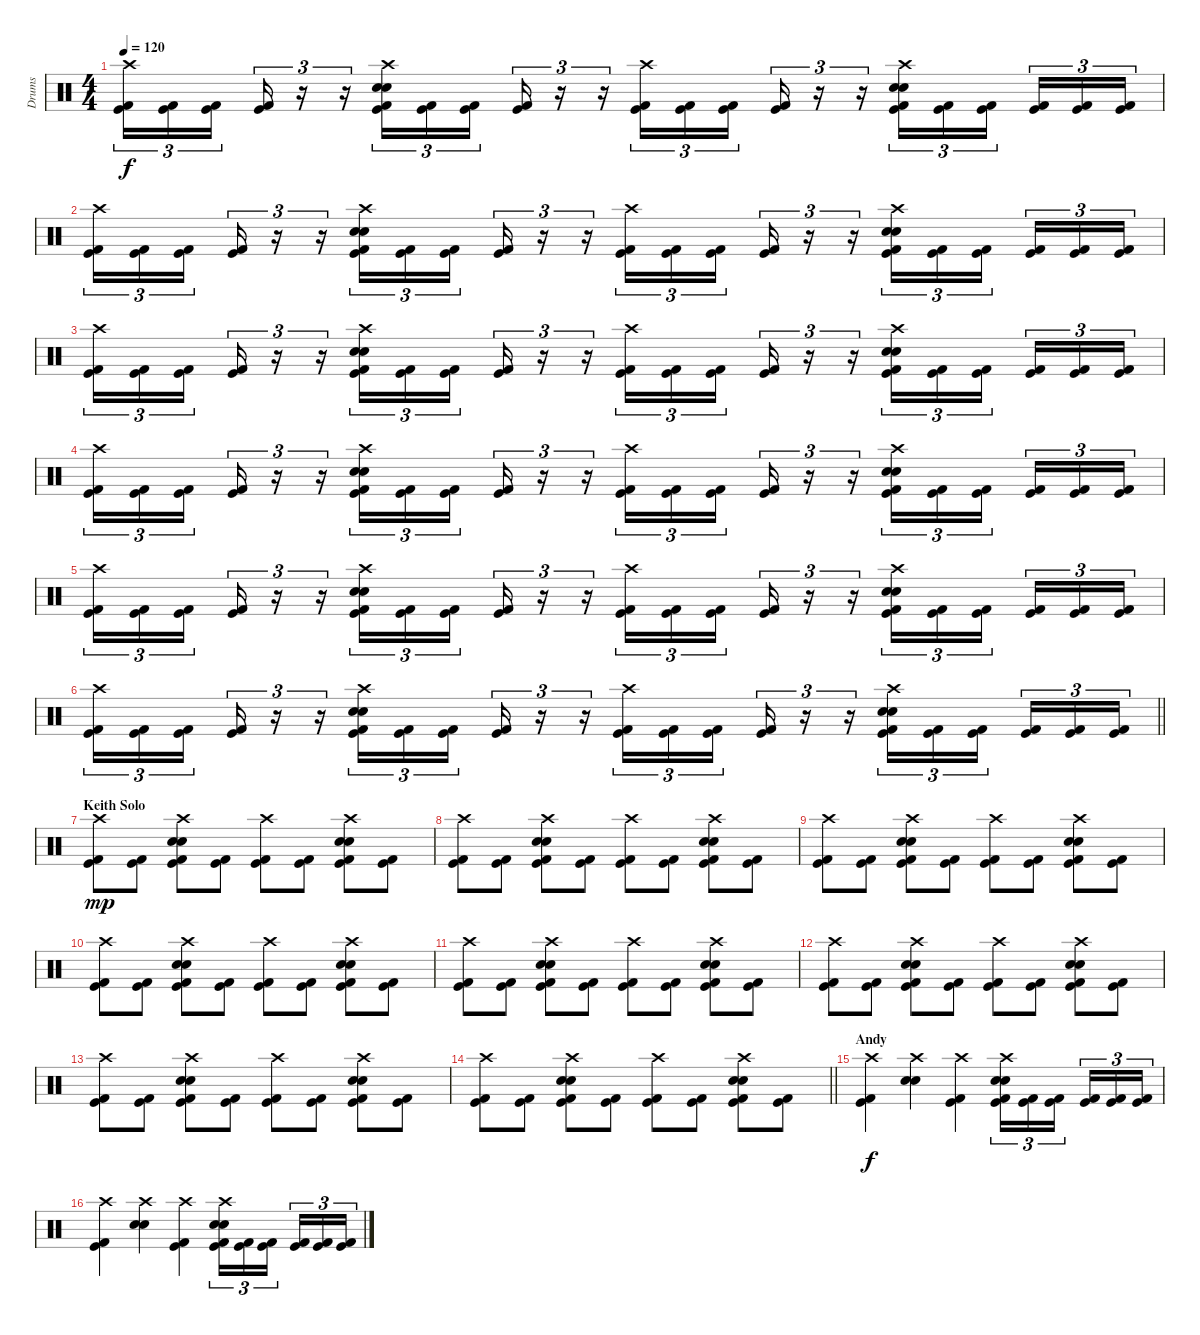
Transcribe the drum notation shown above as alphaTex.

\track ("Drums" "Drums") {instrument percussion}
\staff {score}
\articulation defaults
\ts (4 4)
\tempo 120
\clef neutral
\ks c
("Crash high (hit)" "Kick (hit) 2" "Kick (hit)").16{tu (3 2) dy f} ("Kick (hit) 2" "Kick (hit)").16{tu (3 2)} ("Kick (hit) 2" "Kick (hit)").16{tu (3 2) beam splitsecondary} ("Kick (hit) 2" "Kick (hit)").16{tu (3 2)} r.16{tu (3 2)} r.16{tu (3 2)} ("Crash high (hit)" "Electric Snare (hit)" "Electric Snare (hit)" "Kick (hit) 2" "Kick (hit)").16{tu (3 2)} ("Kick (hit) 2" "Kick (hit)").16{tu (3 2)} ("Kick (hit) 2" "Kick (hit)").16{tu (3 2) beam splitsecondary} ("Kick (hit) 2" "Kick (hit)").16{tu (3 2)} r.16{tu (3 2)} r.16{tu (3 2)} ("Crash high (hit)" "Kick (hit) 2" "Kick (hit)").16{tu (3 2)} ("Kick (hit) 2" "Kick (hit)").16{tu (3 2)} ("Kick (hit) 2" "Kick (hit)").16{tu (3 2) beam splitsecondary} ("Kick (hit) 2" "Kick (hit)").16{tu (3 2)} r.16{tu (3 2)} r.16{tu (3 2)} ("Crash high (hit)" "Electric Snare (hit)" "Electric Snare (hit)" "Kick (hit) 2" "Kick (hit)").16{tu (3 2)} ("Kick (hit) 2" "Kick (hit)").16{tu (3 2)} ("Kick (hit) 2" "Kick (hit)").16{tu (3 2) beam splitsecondary} ("Kick (hit) 2" "Kick (hit)").16{tu (3 2)} ("Kick (hit) 2" "Kick (hit)").16{tu (3 2)} ("Kick (hit) 2" "Kick (hit)").16{tu (3 2)} |
("Crash high (hit)" "Kick (hit) 2" "Kick (hit)").16{tu (3 2)} ("Kick (hit) 2" "Kick (hit)").16{tu (3 2)} ("Kick (hit) 2" "Kick (hit)").16{tu (3 2) beam splitsecondary} ("Kick (hit) 2" "Kick (hit)").16{tu (3 2)} r.16{tu (3 2)} r.16{tu (3 2)} ("Crash high (hit)" "Electric Snare (hit)" "Electric Snare (hit)" "Kick (hit) 2" "Kick (hit)").16{tu (3 2)} ("Kick (hit) 2" "Kick (hit)").16{tu (3 2)} ("Kick (hit) 2" "Kick (hit)").16{tu (3 2) beam splitsecondary} ("Kick (hit) 2" "Kick (hit)").16{tu (3 2)} r.16{tu (3 2)} r.16{tu (3 2)} ("Crash high (hit)" "Kick (hit) 2" "Kick (hit)").16{tu (3 2)} ("Kick (hit) 2" "Kick (hit)").16{tu (3 2)} ("Kick (hit) 2" "Kick (hit)").16{tu (3 2) beam splitsecondary} ("Kick (hit) 2" "Kick (hit)").16{tu (3 2)} r.16{tu (3 2)} r.16{tu (3 2)} ("Crash high (hit)" "Electric Snare (hit)" "Electric Snare (hit)" "Kick (hit) 2" "Kick (hit)").16{tu (3 2)} ("Kick (hit) 2" "Kick (hit)").16{tu (3 2)} ("Kick (hit) 2" "Kick (hit)").16{tu (3 2) beam splitsecondary} ("Kick (hit) 2" "Kick (hit)").16{tu (3 2)} ("Kick (hit) 2" "Kick (hit)").16{tu (3 2)} ("Kick (hit) 2" "Kick (hit)").16{tu (3 2)} |
("Crash high (hit)" "Kick (hit) 2" "Kick (hit)").16{tu (3 2)} ("Kick (hit) 2" "Kick (hit)").16{tu (3 2)} ("Kick (hit) 2" "Kick (hit)").16{tu (3 2) beam splitsecondary} ("Kick (hit) 2" "Kick (hit)").16{tu (3 2)} r.16{tu (3 2)} r.16{tu (3 2)} ("Crash high (hit)" "Electric Snare (hit)" "Electric Snare (hit)" "Kick (hit) 2" "Kick (hit)").16{tu (3 2)} ("Kick (hit) 2" "Kick (hit)").16{tu (3 2)} ("Kick (hit) 2" "Kick (hit)").16{tu (3 2) beam splitsecondary} ("Kick (hit) 2" "Kick (hit)").16{tu (3 2)} r.16{tu (3 2)} r.16{tu (3 2)} ("Crash high (hit)" "Kick (hit) 2" "Kick (hit)").16{tu (3 2)} ("Kick (hit) 2" "Kick (hit)").16{tu (3 2)} ("Kick (hit) 2" "Kick (hit)").16{tu (3 2) beam splitsecondary} ("Kick (hit) 2" "Kick (hit)").16{tu (3 2)} r.16{tu (3 2)} r.16{tu (3 2)} ("Crash high (hit)" "Electric Snare (hit)" "Electric Snare (hit)" "Kick (hit) 2" "Kick (hit)").16{tu (3 2)} ("Kick (hit) 2" "Kick (hit)").16{tu (3 2)} ("Kick (hit) 2" "Kick (hit)").16{tu (3 2) beam splitsecondary} ("Kick (hit) 2" "Kick (hit)").16{tu (3 2)} ("Kick (hit) 2" "Kick (hit)").16{tu (3 2)} ("Kick (hit) 2" "Kick (hit)").16{tu (3 2)} |
("Crash high (hit)" "Kick (hit) 2" "Kick (hit)").16{tu (3 2)} ("Kick (hit) 2" "Kick (hit)").16{tu (3 2)} ("Kick (hit) 2" "Kick (hit)").16{tu (3 2) beam splitsecondary} ("Kick (hit) 2" "Kick (hit)").16{tu (3 2)} r.16{tu (3 2)} r.16{tu (3 2)} ("Crash high (hit)" "Electric Snare (hit)" "Electric Snare (hit)" "Kick (hit) 2" "Kick (hit)").16{tu (3 2)} ("Kick (hit) 2" "Kick (hit)").16{tu (3 2)} ("Kick (hit) 2" "Kick (hit)").16{tu (3 2) beam splitsecondary} ("Kick (hit) 2" "Kick (hit)").16{tu (3 2)} r.16{tu (3 2)} r.16{tu (3 2)} ("Crash high (hit)" "Kick (hit) 2" "Kick (hit)").16{tu (3 2)} ("Kick (hit) 2" "Kick (hit)").16{tu (3 2)} ("Kick (hit) 2" "Kick (hit)").16{tu (3 2) beam splitsecondary} ("Kick (hit) 2" "Kick (hit)").16{tu (3 2)} r.16{tu (3 2)} r.16{tu (3 2)} ("Crash high (hit)" "Electric Snare (hit)" "Electric Snare (hit)" "Kick (hit) 2" "Kick (hit)").16{tu (3 2)} ("Kick (hit) 2" "Kick (hit)").16{tu (3 2)} ("Kick (hit) 2" "Kick (hit)").16{tu (3 2) beam splitsecondary} ("Kick (hit) 2" "Kick (hit)").16{tu (3 2)} ("Kick (hit) 2" "Kick (hit)").16{tu (3 2)} ("Kick (hit) 2" "Kick (hit)").16{tu (3 2)} |
("Crash high (hit)" "Kick (hit) 2" "Kick (hit)").16{tu (3 2)} ("Kick (hit) 2" "Kick (hit)").16{tu (3 2)} ("Kick (hit) 2" "Kick (hit)").16{tu (3 2) beam splitsecondary} ("Kick (hit) 2" "Kick (hit)").16{tu (3 2)} r.16{tu (3 2)} r.16{tu (3 2)} ("Crash high (hit)" "Electric Snare (hit)" "Electric Snare (hit)" "Kick (hit) 2" "Kick (hit)").16{tu (3 2)} ("Kick (hit) 2" "Kick (hit)").16{tu (3 2)} ("Kick (hit) 2" "Kick (hit)").16{tu (3 2) beam splitsecondary} ("Kick (hit) 2" "Kick (hit)").16{tu (3 2)} r.16{tu (3 2)} r.16{tu (3 2)} ("Crash high (hit)" "Kick (hit) 2" "Kick (hit)").16{tu (3 2)} ("Kick (hit) 2" "Kick (hit)").16{tu (3 2)} ("Kick (hit) 2" "Kick (hit)").16{tu (3 2) beam splitsecondary} ("Kick (hit) 2" "Kick (hit)").16{tu (3 2)} r.16{tu (3 2)} r.16{tu (3 2)} ("Crash high (hit)" "Electric Snare (hit)" "Electric Snare (hit)" "Kick (hit) 2" "Kick (hit)").16{tu (3 2)} ("Kick (hit) 2" "Kick (hit)").16{tu (3 2)} ("Kick (hit) 2" "Kick (hit)").16{tu (3 2) beam splitsecondary} ("Kick (hit) 2" "Kick (hit)").16{tu (3 2)} ("Kick (hit) 2" "Kick (hit)").16{tu (3 2)} ("Kick (hit) 2" "Kick (hit)").16{tu (3 2)} |
\barLineRight lightlight
("Crash high (hit)" "Kick (hit) 2" "Kick (hit)").16{tu (3 2)} ("Kick (hit) 2" "Kick (hit)").16{tu (3 2)} ("Kick (hit) 2" "Kick (hit)").16{tu (3 2) beam splitsecondary} ("Kick (hit) 2" "Kick (hit)").16{tu (3 2)} r.16{tu (3 2)} r.16{tu (3 2)} ("Crash high (hit)" "Electric Snare (hit)" "Electric Snare (hit)" "Kick (hit) 2" "Kick (hit)").16{tu (3 2)} ("Kick (hit) 2" "Kick (hit)").16{tu (3 2)} ("Kick (hit) 2" "Kick (hit)").16{tu (3 2) beam splitsecondary} ("Kick (hit) 2" "Kick (hit)").16{tu (3 2)} r.16{tu (3 2)} r.16{tu (3 2)} ("Crash high (hit)" "Kick (hit) 2" "Kick (hit)").16{tu (3 2)} ("Kick (hit) 2" "Kick (hit)").16{tu (3 2)} ("Kick (hit) 2" "Kick (hit)").16{tu (3 2) beam splitsecondary} ("Kick (hit) 2" "Kick (hit)").16{tu (3 2)} r.16{tu (3 2)} r.16{tu (3 2)} ("Crash high (hit)" "Electric Snare (hit)" "Electric Snare (hit)" "Kick (hit) 2" "Kick (hit)").16{tu (3 2)} ("Kick (hit) 2" "Kick (hit)").16{tu (3 2)} ("Kick (hit) 2" "Kick (hit)").16{tu (3 2) beam splitsecondary} ("Kick (hit) 2" "Kick (hit)").16{tu (3 2)} ("Kick (hit) 2" "Kick (hit)").16{tu (3 2)} ("Kick (hit) 2" "Kick (hit)").16{tu (3 2)} |
\section ("" "Keith Solo")
("Crash high (hit)" "Kick (hit) 2" "Kick (hit)").8{dy mp} ("Kick (hit) 2" "Kick (hit)").8 ("Crash high (hit)" "Electric Snare (hit)" "Electric Snare (hit)" "Kick (hit) 2" "Kick (hit)").8 ("Kick (hit) 2" "Kick (hit)").8 ("Crash high (hit)" "Kick (hit) 2" "Kick (hit)").8 ("Kick (hit) 2" "Kick (hit)").8 ("Crash high (hit)" "Electric Snare (hit)" "Electric Snare (hit)" "Kick (hit) 2" "Kick (hit)").8 ("Kick (hit) 2" "Kick (hit)").8 |
("Crash high (hit)" "Kick (hit) 2" "Kick (hit)").8 ("Kick (hit) 2" "Kick (hit)").8 ("Crash high (hit)" "Electric Snare (hit)" "Electric Snare (hit)" "Kick (hit) 2" "Kick (hit)").8 ("Kick (hit) 2" "Kick (hit)").8 ("Crash high (hit)" "Kick (hit) 2" "Kick (hit)").8 ("Kick (hit) 2" "Kick (hit)").8 ("Crash high (hit)" "Electric Snare (hit)" "Electric Snare (hit)" "Kick (hit) 2" "Kick (hit)").8 ("Kick (hit) 2" "Kick (hit)").8 |
("Crash high (hit)" "Kick (hit) 2" "Kick (hit)").8 ("Kick (hit) 2" "Kick (hit)").8 ("Crash high (hit)" "Electric Snare (hit)" "Electric Snare (hit)" "Kick (hit) 2" "Kick (hit)").8 ("Kick (hit) 2" "Kick (hit)").8 ("Crash high (hit)" "Kick (hit) 2" "Kick (hit)").8 ("Kick (hit) 2" "Kick (hit)").8 ("Crash high (hit)" "Electric Snare (hit)" "Electric Snare (hit)" "Kick (hit) 2" "Kick (hit)").8 ("Kick (hit) 2" "Kick (hit)").8 |
("Crash high (hit)" "Kick (hit) 2" "Kick (hit)").8 ("Kick (hit) 2" "Kick (hit)").8 ("Crash high (hit)" "Electric Snare (hit)" "Electric Snare (hit)" "Kick (hit) 2" "Kick (hit)").8 ("Kick (hit) 2" "Kick (hit)").8 ("Crash high (hit)" "Kick (hit) 2" "Kick (hit)").8 ("Kick (hit) 2" "Kick (hit)").8 ("Crash high (hit)" "Electric Snare (hit)" "Electric Snare (hit)" "Kick (hit) 2" "Kick (hit)").8 ("Kick (hit) 2" "Kick (hit)").8 |
("Crash high (hit)" "Kick (hit) 2" "Kick (hit)").8 ("Kick (hit) 2" "Kick (hit)").8 ("Crash high (hit)" "Electric Snare (hit)" "Electric Snare (hit)" "Kick (hit) 2" "Kick (hit)").8 ("Kick (hit) 2" "Kick (hit)").8 ("Crash high (hit)" "Kick (hit) 2" "Kick (hit)").8 ("Kick (hit) 2" "Kick (hit)").8 ("Crash high (hit)" "Electric Snare (hit)" "Electric Snare (hit)" "Kick (hit) 2" "Kick (hit)").8 ("Kick (hit) 2" "Kick (hit)").8 |
("Crash high (hit)" "Kick (hit) 2" "Kick (hit)").8 ("Kick (hit) 2" "Kick (hit)").8 ("Crash high (hit)" "Electric Snare (hit)" "Electric Snare (hit)" "Kick (hit) 2" "Kick (hit)").8 ("Kick (hit) 2" "Kick (hit)").8 ("Crash high (hit)" "Kick (hit) 2" "Kick (hit)").8 ("Kick (hit) 2" "Kick (hit)").8 ("Crash high (hit)" "Electric Snare (hit)" "Electric Snare (hit)" "Kick (hit) 2" "Kick (hit)").8 ("Kick (hit) 2" "Kick (hit)").8 |
("Crash high (hit)" "Kick (hit) 2" "Kick (hit)").8 ("Kick (hit) 2" "Kick (hit)").8 ("Crash high (hit)" "Electric Snare (hit)" "Electric Snare (hit)" "Kick (hit) 2" "Kick (hit)").8 ("Kick (hit) 2" "Kick (hit)").8 ("Crash high (hit)" "Kick (hit) 2" "Kick (hit)").8 ("Kick (hit) 2" "Kick (hit)").8 ("Crash high (hit)" "Electric Snare (hit)" "Electric Snare (hit)" "Kick (hit) 2" "Kick (hit)").8 ("Kick (hit) 2" "Kick (hit)").8 |
\barLineRight lightlight
("Crash high (hit)" "Kick (hit) 2" "Kick (hit)").8 ("Kick (hit) 2" "Kick (hit)").8 ("Crash high (hit)" "Electric Snare (hit)" "Electric Snare (hit)" "Kick (hit) 2" "Kick (hit)").8 ("Kick (hit) 2" "Kick (hit)").8 ("Crash high (hit)" "Kick (hit) 2" "Kick (hit)").8 ("Kick (hit) 2" "Kick (hit)").8 ("Crash high (hit)" "Electric Snare (hit)" "Electric Snare (hit)" "Kick (hit) 2" "Kick (hit)").8 ("Kick (hit) 2" "Kick (hit)").8 |
\section ("" "Andy")
("Crash high (hit)" "Kick (hit) 2" "Kick (hit)").4{dy f} ("Crash high (hit)" "Electric Snare (hit)" "Electric Snare (hit)").4 ("Crash high (hit)" "Kick (hit) 2" "Kick (hit)").4 ("Crash high (hit)" "Electric Snare (hit)" "Electric Snare (hit)" "Kick (hit)" "Kick (hit) 2").16{tu (3 2)} ("Kick (hit)" "Kick (hit) 2").16{tu (3 2)} ("Kick (hit)" "Kick (hit) 2").16{tu (3 2) beam splitsecondary} ("Kick (hit)" "Kick (hit) 2").16{tu (3 2)} ("Kick (hit)" "Kick (hit) 2").16{tu (3 2)} ("Kick (hit)" "Kick (hit) 2").16{tu (3 2)} |
("Crash high (hit)" "Kick (hit) 2" "Kick (hit)").4 ("Crash high (hit)" "Electric Snare (hit)" "Electric Snare (hit)").4 ("Crash high (hit)" "Kick (hit) 2" "Kick (hit)").4 ("Crash high (hit)" "Electric Snare (hit)" "Electric Snare (hit)" "Kick (hit)" "Kick (hit) 2").16{tu (3 2)} ("Kick (hit)" "Kick (hit) 2").16{tu (3 2)} ("Kick (hit)" "Kick (hit) 2").16{tu (3 2) beam splitsecondary} ("Kick (hit)" "Kick (hit) 2").16{tu (3 2)} ("Kick (hit)" "Kick (hit) 2").16{tu (3 2)} ("Kick (hit)" "Kick (hit) 2").16{tu (3 2)}
